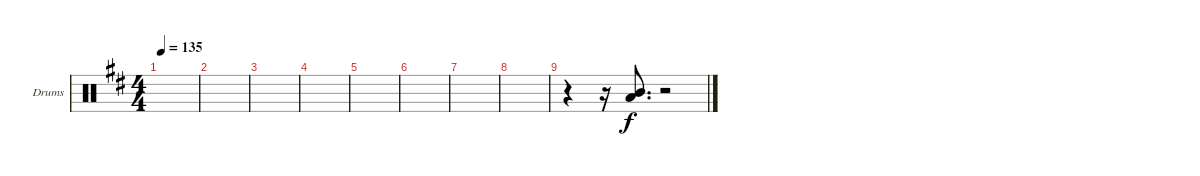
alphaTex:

\bracketExtendMode groupsimilarinstruments
\firstSystemTrackNameOrientation horizontal
\otherSystemsTrackNameOrientation horizontal
\track ("Tom" "Drums") {instrument percussion}
\staff {score}
\articulation defaults
\ts (4 4)
\tempo 135
\clef neutral
\ks d
|
|
|
|
|
|
|
|
r.4 r.16 ("Low Tom (hit)" "Mid Tom (hit)").8{d dy f} r.2
